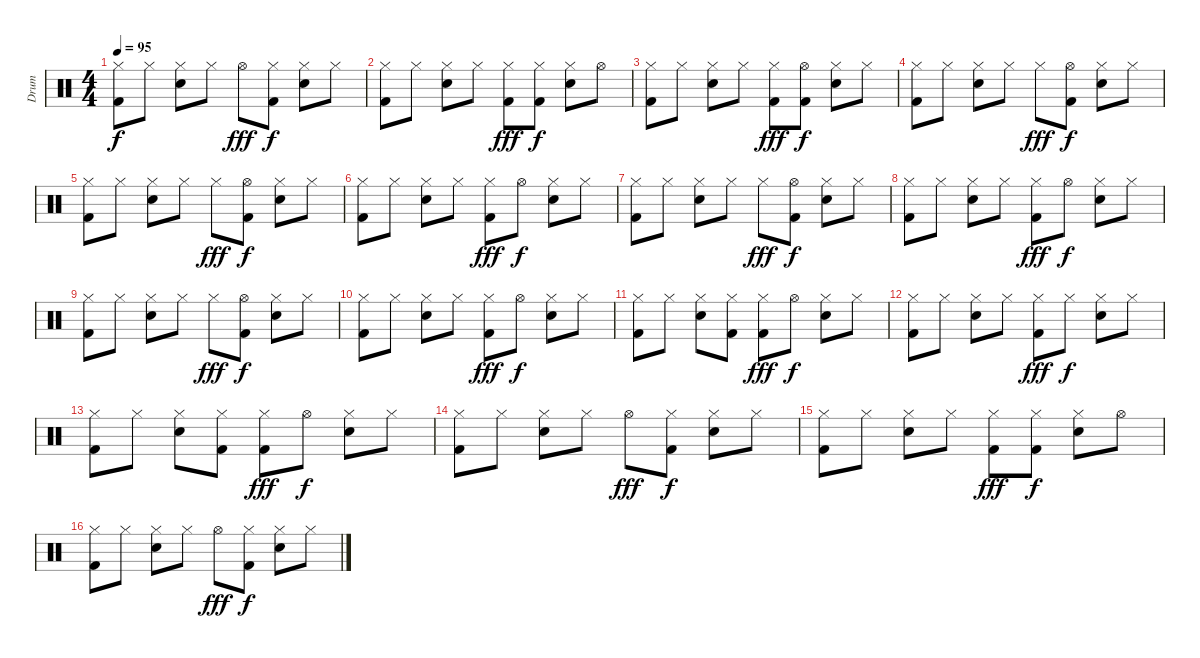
\track ("Drum" "Drum") {instrument percussion}
\staff {score}
\articulation defaults
\ts (4 4)
\tempo 95
\clef neutral
\ks c
("Hi-Hat (closed)" "Kick (hit) 2").8{dy f} "Hi-Hat (closed)".8 ("Hi-Hat (closed)" "Snare (hit) 2").8 "Hi-Hat (closed)".8 "Hi-Hat (open)".8{dy fff} ("Hi-Hat (closed)" "Kick (hit) 2").8{dy f} ("Hi-Hat (closed)" "Snare (hit) 2").8 "Hi-Hat (closed)".8 |
("Hi-Hat (closed)" "Kick (hit) 2").8 "Hi-Hat (closed)".8 ("Hi-Hat (closed)" "Snare (hit) 2").8 "Hi-Hat (closed)".8 ("Hi-Hat (closed)" "Kick (hit) 2").8{dy fff} ("Hi-Hat (closed)" "Kick (hit) 2").8{dy f} ("Hi-Hat (closed)" "Snare (hit) 2").8 "Hi-Hat (open)".8 |
("Hi-Hat (closed)" "Kick (hit) 2").8 "Hi-Hat (closed)".8 ("Hi-Hat (closed)" "Snare (hit) 2").8 "Hi-Hat (closed)".8 ("Hi-Hat (closed)" "Kick (hit) 2").8{dy fff} ("Hi-Hat (open)" "Kick (hit) 2").8{dy f} ("Hi-Hat (closed)" "Snare (hit) 2").8 "Hi-Hat (closed)".8 |
("Hi-Hat (closed)" "Kick (hit) 2").8 "Hi-Hat (closed)".8 ("Hi-Hat (closed)" "Snare (hit) 2").8 "Hi-Hat (closed)".8 "Hi-Hat (closed)".8{dy fff} ("Hi-Hat (open)" "Kick (hit) 2").8{dy f} ("Hi-Hat (closed)" "Snare (hit) 2").8 "Hi-Hat (closed)".8 |
("Hi-Hat (closed)" "Kick (hit) 2").8 "Hi-Hat (closed)".8 ("Hi-Hat (closed)" "Snare (hit) 2").8 "Hi-Hat (closed)".8 "Hi-Hat (closed)".8{dy fff} ("Hi-Hat (open)" "Kick (hit) 2").8{dy f} ("Hi-Hat (closed)" "Snare (hit) 2").8 "Hi-Hat (closed)".8 |
("Hi-Hat (closed)" "Kick (hit) 2").8 "Hi-Hat (closed)".8 ("Hi-Hat (closed)" "Snare (hit) 2").8 "Hi-Hat (closed)".8 ("Hi-Hat (closed)" "Kick (hit) 2").8{dy fff} "Hi-Hat (open)".8{dy f} ("Hi-Hat (closed)" "Snare (hit) 2").8 "Hi-Hat (closed)".8 |
("Hi-Hat (closed)" "Kick (hit) 2").8 "Hi-Hat (closed)".8 ("Hi-Hat (closed)" "Snare (hit) 2").8 "Hi-Hat (closed)".8 "Hi-Hat (closed)".8{dy fff} ("Hi-Hat (open)" "Kick (hit) 2").8{dy f} ("Hi-Hat (closed)" "Snare (hit) 2").8 "Hi-Hat (closed)".8 |
("Hi-Hat (closed)" "Kick (hit) 2").8 "Hi-Hat (closed)".8 ("Hi-Hat (closed)" "Snare (hit) 2").8 "Hi-Hat (closed)".8 ("Hi-Hat (closed)" "Kick (hit) 2").8{dy fff} "Hi-Hat (open)".8{dy f} ("Hi-Hat (closed)" "Snare (hit) 2").8 "Hi-Hat (closed)".8 |
("Hi-Hat (closed)" "Kick (hit) 2").8 "Hi-Hat (closed)".8 ("Hi-Hat (closed)" "Snare (hit) 2").8 "Hi-Hat (closed)".8 "Hi-Hat (closed)".8{dy fff} ("Hi-Hat (open)" "Kick (hit) 2").8{dy f} ("Hi-Hat (closed)" "Snare (hit) 2").8 "Hi-Hat (closed)".8 |
("Hi-Hat (closed)" "Kick (hit) 2").8 "Hi-Hat (closed)".8 ("Hi-Hat (closed)" "Snare (hit) 2").8 "Hi-Hat (closed)".8 ("Hi-Hat (closed)" "Kick (hit) 2").8{dy fff} "Hi-Hat (open)".8{dy f} ("Hi-Hat (closed)" "Snare (hit) 2").8 "Hi-Hat (closed)".8 |
("Hi-Hat (closed)" "Kick (hit) 2").8 "Hi-Hat (closed)".8 ("Hi-Hat (closed)" "Snare (hit) 2").8 ("Hi-Hat (closed)" "Kick (hit) 2").8 ("Hi-Hat (closed)" "Kick (hit) 2").8{dy fff} "Hi-Hat (open)".8{dy f} ("Hi-Hat (closed)" "Snare (hit) 2").8 "Hi-Hat (closed)".8 |
("Hi-Hat (closed)" "Kick (hit) 2").8 "Hi-Hat (closed)".8 ("Hi-Hat (closed)" "Snare (hit) 2").8 "Hi-Hat (closed)".8 ("Hi-Hat (closed)" "Kick (hit) 2").8{dy fff} "Hi-Hat (closed)".8{dy f} ("Hi-Hat (closed)" "Snare (hit) 2").8 "Hi-Hat (closed)".8 |
("Hi-Hat (closed)" "Kick (hit) 2").8 "Hi-Hat (closed)".8 ("Hi-Hat (closed)" "Snare (hit) 2").8 ("Hi-Hat (closed)" "Kick (hit) 2").8 ("Hi-Hat (closed)" "Kick (hit) 2").8{dy fff} "Hi-Hat (open)".8{dy f} ("Hi-Hat (closed)" "Snare (hit) 2").8 "Hi-Hat (closed)".8 |
("Hi-Hat (closed)" "Kick (hit) 2").8 "Hi-Hat (closed)".8 ("Hi-Hat (closed)" "Snare (hit) 2").8 "Hi-Hat (closed)".8 "Hi-Hat (open)".8{dy fff} ("Hi-Hat (closed)" "Kick (hit) 2").8{dy f} ("Hi-Hat (closed)" "Snare (hit) 2").8 "Hi-Hat (closed)".8 |
("Hi-Hat (closed)" "Kick (hit) 2").8 "Hi-Hat (closed)".8 ("Hi-Hat (closed)" "Snare (hit) 2").8 "Hi-Hat (closed)".8 ("Hi-Hat (closed)" "Kick (hit) 2").8{dy fff} ("Hi-Hat (closed)" "Kick (hit) 2").8{dy f} ("Hi-Hat (closed)" "Snare (hit) 2").8 "Hi-Hat (open)".8 |
("Hi-Hat (closed)" "Kick (hit) 2").8 "Hi-Hat (closed)".8 ("Hi-Hat (closed)" "Snare (hit) 2").8 "Hi-Hat (closed)".8 "Hi-Hat (open)".8{dy fff} ("Hi-Hat (closed)" "Kick (hit) 2").8{dy f} ("Hi-Hat (closed)" "Snare (hit) 2").8 "Hi-Hat (closed)".8
